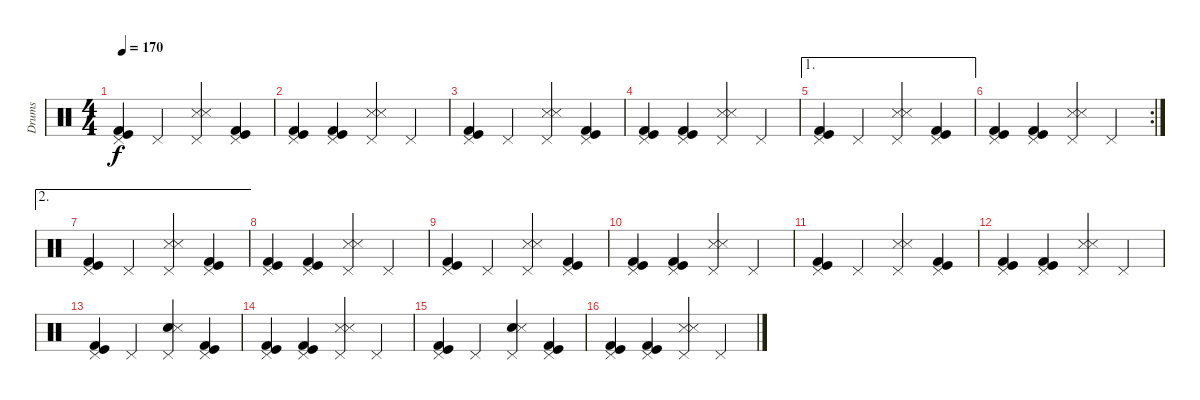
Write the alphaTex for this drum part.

\track ("Drums" "Drums") {instrument percussion}
\staff {score}
\articulation defaults
\ts (4 4)
\tempo 170
\clef neutral
\ks c
("Pedal Hi-Hat (hit)" "Kick (hit)" "Kick (hit) 2").4{dy f} "Pedal Hi-Hat (hit)".4 ("Pedal Hi-Hat (hit)" "Snare (side stick) 3" "Snare (side stick) 3").4 ("Pedal Hi-Hat (hit)" "Kick (hit)" "Kick (hit) 2").4 |
("Pedal Hi-Hat (hit)" "Kick (hit)" "Kick (hit) 2").4 ("Pedal Hi-Hat (hit)" "Kick (hit)" "Kick (hit) 2").4 ("Pedal Hi-Hat (hit)" "Snare (side stick) 3" "Snare (side stick) 3").4 "Pedal Hi-Hat (hit)".4 |
("Pedal Hi-Hat (hit)" "Kick (hit)" "Kick (hit) 2").4 "Pedal Hi-Hat (hit)".4 ("Pedal Hi-Hat (hit)" "Snare (side stick) 3" "Snare (side stick) 3").4 ("Pedal Hi-Hat (hit)" "Kick (hit)" "Kick (hit) 2").4 |
("Pedal Hi-Hat (hit)" "Kick (hit)" "Kick (hit) 2").4 ("Pedal Hi-Hat (hit)" "Kick (hit)" "Kick (hit) 2").4 ("Pedal Hi-Hat (hit)" "Snare (side stick) 3" "Snare (side stick) 3").4 "Pedal Hi-Hat (hit)".4 |
\ae 1
("Pedal Hi-Hat (hit)" "Kick (hit)" "Kick (hit) 2").4 "Pedal Hi-Hat (hit)".4 ("Pedal Hi-Hat (hit)" "Snare (side stick) 3" "Snare (side stick) 3").4 ("Pedal Hi-Hat (hit)" "Kick (hit)" "Kick (hit) 2").4 |
\rc 2
("Pedal Hi-Hat (hit)" "Kick (hit)" "Kick (hit) 2").4 ("Pedal Hi-Hat (hit)" "Kick (hit)" "Kick (hit) 2").4 ("Pedal Hi-Hat (hit)" "Snare (side stick) 3" "Snare (side stick) 3").4 "Pedal Hi-Hat (hit)".4 |
\ae 2
("Pedal Hi-Hat (hit)" "Kick (hit)" "Kick (hit) 2").4 "Pedal Hi-Hat (hit)".4 ("Pedal Hi-Hat (hit)" "Snare (side stick) 3" "Snare (side stick) 3").4 ("Pedal Hi-Hat (hit)" "Kick (hit)" "Kick (hit) 2").4 |
("Pedal Hi-Hat (hit)" "Kick (hit)" "Kick (hit) 2").4 ("Pedal Hi-Hat (hit)" "Kick (hit)" "Kick (hit) 2").4 ("Pedal Hi-Hat (hit)" "Snare (side stick) 3" "Snare (side stick) 3").4 "Pedal Hi-Hat (hit)".4 |
("Pedal Hi-Hat (hit)" "Kick (hit)" "Kick (hit) 2").4 "Pedal Hi-Hat (hit)".4 ("Pedal Hi-Hat (hit)" "Snare (side stick) 3" "Snare (side stick) 3").4 ("Pedal Hi-Hat (hit)" "Kick (hit)" "Kick (hit) 2").4 |
("Pedal Hi-Hat (hit)" "Kick (hit)" "Kick (hit) 2").4 ("Pedal Hi-Hat (hit)" "Kick (hit)" "Kick (hit) 2").4 ("Pedal Hi-Hat (hit)" "Snare (side stick) 3" "Snare (side stick) 3").4 "Pedal Hi-Hat (hit)".4 |
("Pedal Hi-Hat (hit)" "Kick (hit)" "Kick (hit) 2").4 "Pedal Hi-Hat (hit)".4 ("Pedal Hi-Hat (hit)" "Snare (side stick) 3" "Snare (side stick) 3").4 ("Pedal Hi-Hat (hit)" "Kick (hit)" "Kick (hit) 2").4 |
("Pedal Hi-Hat (hit)" "Kick (hit)" "Kick (hit) 2").4 ("Pedal Hi-Hat (hit)" "Kick (hit)" "Kick (hit) 2").4 ("Pedal Hi-Hat (hit)" "Snare (side stick) 3" "Snare (side stick) 3").4 "Pedal Hi-Hat (hit)".4 |
("Pedal Hi-Hat (hit)" "Kick (hit)" "Kick (hit) 2").4 "Pedal Hi-Hat (hit)".4 ("Pedal Hi-Hat (hit)" "Snare (hit) 2" "Snare (side stick) 3").4 ("Pedal Hi-Hat (hit)" "Kick (hit)" "Kick (hit) 2").4 |
("Pedal Hi-Hat (hit)" "Kick (hit)" "Kick (hit) 2").4 ("Pedal Hi-Hat (hit)" "Kick (hit)" "Kick (hit) 2").4 ("Pedal Hi-Hat (hit)" "Snare (side stick) 3" "Snare (side stick) 3").4 "Pedal Hi-Hat (hit)".4 |
("Pedal Hi-Hat (hit)" "Kick (hit)" "Kick (hit) 2").4 "Pedal Hi-Hat (hit)".4 ("Pedal Hi-Hat (hit)" "Snare (hit) 2" "Snare (side stick) 3").4 ("Pedal Hi-Hat (hit)" "Kick (hit)" "Kick (hit) 2").4 |
("Pedal Hi-Hat (hit)" "Kick (hit)" "Kick (hit) 2").4 ("Pedal Hi-Hat (hit)" "Kick (hit)" "Kick (hit) 2").4 ("Pedal Hi-Hat (hit)" "Snare (side stick) 3" "Snare (side stick) 3").4 "Pedal Hi-Hat (hit)".4
